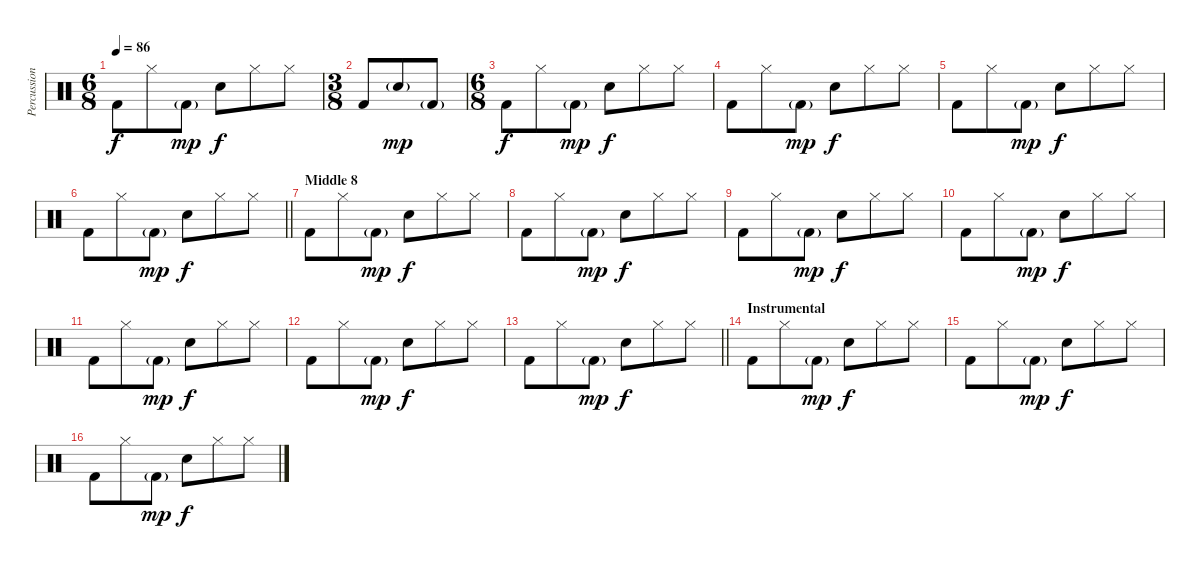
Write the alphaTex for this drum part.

\track ("Percussion" "Percussion") {instrument percussion}
\staff {score}
\articulation defaults
\ts (6 8)
\tempo 86
\clef neutral
\ks c "Kick (hit) 2".8{dy f} "Hi-Hat (closed)".8 "Kick (hit) 2"{g}.8{dy mp} "Snare (hit) 2".8{dy f} "Hi-Hat (closed)".8 "Hi-Hat (closed)".8
|
\ts (3 8)
"Kick (hit) 2".8 "Snare (hit) 2"{g}.8{dy mp} "Kick (hit) 2"{g}.8 |
\ts (6 8)
"Kick (hit) 2".8{dy f} "Hi-Hat (closed)".8 "Kick (hit) 2"{g}.8{dy mp} "Snare (hit) 2".8{dy f} "Hi-Hat (closed)".8 "Hi-Hat (closed)".8 |
"Kick (hit) 2".8 "Hi-Hat (closed)".8 "Kick (hit) 2"{g}.8{dy mp} "Snare (hit) 2".8{dy f} "Hi-Hat (closed)".8 "Hi-Hat (closed)".8 |
"Kick (hit) 2".8 "Hi-Hat (closed)".8 "Kick (hit) 2"{g}.8{dy mp} "Snare (hit) 2".8{dy f} "Hi-Hat (closed)".8 "Hi-Hat (closed)".8 |
\barLineRight lightlight "Kick (hit) 2".8 "Hi-Hat (closed)".8 "Kick (hit) 2"{g}.8{dy mp} "Snare (hit) 2".8{dy f} "Hi-Hat (closed)".8 "Hi-Hat (closed)".8
|
\section ("" "Middle 8")
"Kick (hit) 2".8 "Hi-Hat (closed)".8 "Kick (hit) 2"{g}.8{dy mp} "Snare (hit) 2".8{dy f} "Hi-Hat (closed)".8 "Hi-Hat (closed)".8 |
"Kick (hit) 2".8 "Hi-Hat (closed)".8 "Kick (hit) 2"{g}.8{dy mp} "Snare (hit) 2".8{dy f} "Hi-Hat (closed)".8 "Hi-Hat (closed)".8 |
"Kick (hit) 2".8 "Hi-Hat (closed)".8 "Kick (hit) 2"{g}.8{dy mp} "Snare (hit) 2".8{dy f} "Hi-Hat (closed)".8 "Hi-Hat (closed)".8 |
"Kick (hit) 2".8 "Hi-Hat (closed)".8 "Kick (hit) 2"{g}.8{dy mp} "Snare (hit) 2".8{dy f} "Hi-Hat (closed)".8 "Hi-Hat (closed)".8 |
"Kick (hit) 2".8 "Hi-Hat (closed)".8 "Kick (hit) 2"{g}.8{dy mp} "Snare (hit) 2".8{dy f} "Hi-Hat (closed)".8 "Hi-Hat (closed)".8 |
"Kick (hit) 2".8 "Hi-Hat (closed)".8 "Kick (hit) 2"{g}.8{dy mp} "Snare (hit) 2".8{dy f} "Hi-Hat (closed)".8 "Hi-Hat (closed)".8 |
\barLineRight lightlight "Kick (hit) 2".8 "Hi-Hat (closed)".8 "Kick (hit) 2"{g}.8{dy mp} "Snare (hit) 2".8{dy f} "Hi-Hat (closed)".8 "Hi-Hat (closed)".8
|
\section ("" "Instrumental")
"Kick (hit) 2".8 "Hi-Hat (closed)".8 "Kick (hit) 2"{g}.8{dy mp} "Snare (hit) 2".8{dy f} "Hi-Hat (closed)".8 "Hi-Hat (closed)".8 |
"Kick (hit) 2".8 "Hi-Hat (closed)".8 "Kick (hit) 2"{g}.8{dy mp} "Snare (hit) 2".8{dy f} "Hi-Hat (closed)".8 "Hi-Hat (closed)".8 |
"Kick (hit) 2".8 "Hi-Hat (closed)".8 "Kick (hit) 2"{g}.8{dy mp} "Snare (hit) 2".8{dy f} "Hi-Hat (closed)".8 "Hi-Hat (closed)".8
